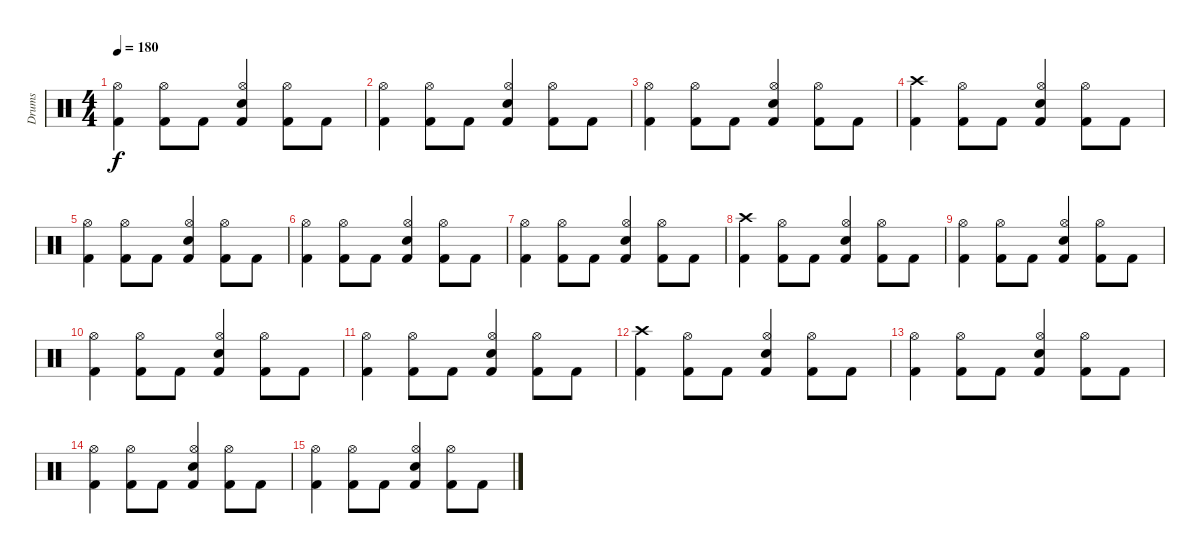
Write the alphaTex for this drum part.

\track ("Drums" "Drums") {instrument percussion}
\staff {score}
\articulation defaults
\ts (4 4)
\tempo 180
\clef neutral
\ks c
("Kick (hit) 2" "Hi-Hat (open)").4{dy f} ("Kick (hit) 2" "Hi-Hat (open)").8 "Kick (hit) 2".8 ("Kick (hit) 2" "Snare (hit) 2" "Hi-Hat (open)").4 ("Kick (hit) 2" "Hi-Hat (open)").8 "Kick (hit) 2".8 |
("Kick (hit) 2" "Hi-Hat (open)").4 ("Kick (hit) 2" "Hi-Hat (open)").8 "Kick (hit) 2".8 ("Kick (hit) 2" "Snare (hit) 2" "Hi-Hat (open)").4 ("Kick (hit) 2" "Hi-Hat (open)").8 "Kick (hit) 2".8 |
("Kick (hit) 2" "Hi-Hat (open)").4 ("Kick (hit) 2" "Hi-Hat (open)").8 "Kick (hit) 2".8 ("Kick (hit) 2" "Snare (hit) 2" "Hi-Hat (open)").4 ("Kick (hit) 2" "Hi-Hat (open)").8 "Kick (hit) 2".8 |
("Kick (hit) 2" "Crash high (hit)").4 ("Kick (hit) 2" "Hi-Hat (open)").8 "Kick (hit) 2".8 ("Kick (hit) 2" "Snare (hit) 2" "Hi-Hat (open)").4 ("Kick (hit) 2" "Hi-Hat (open)").8 "Kick (hit) 2".8 |
("Kick (hit) 2" "Hi-Hat (open)").4 ("Kick (hit) 2" "Hi-Hat (open)").8 "Kick (hit) 2".8 ("Kick (hit) 2" "Snare (hit) 2" "Hi-Hat (open)").4 ("Kick (hit) 2" "Hi-Hat (open)").8 "Kick (hit) 2".8 |
("Kick (hit) 2" "Hi-Hat (open)").4 ("Kick (hit) 2" "Hi-Hat (open)").8 "Kick (hit) 2".8 ("Kick (hit) 2" "Snare (hit) 2" "Hi-Hat (open)").4 ("Kick (hit) 2" "Hi-Hat (open)").8 "Kick (hit) 2".8 |
("Kick (hit) 2" "Hi-Hat (open)").4 ("Kick (hit) 2" "Hi-Hat (open)").8 "Kick (hit) 2".8 ("Kick (hit) 2" "Snare (hit) 2" "Hi-Hat (open)").4 ("Kick (hit) 2" "Hi-Hat (open)").8 "Kick (hit) 2".8 |
("Kick (hit) 2" "Crash high (hit)").4 ("Kick (hit) 2" "Hi-Hat (open)").8 "Kick (hit) 2".8 ("Kick (hit) 2" "Snare (hit) 2" "Hi-Hat (open)").4 ("Kick (hit) 2" "Hi-Hat (open)").8 "Kick (hit) 2".8 |
("Kick (hit) 2" "Hi-Hat (open)").4 ("Kick (hit) 2" "Hi-Hat (open)").8 "Kick (hit) 2".8 ("Kick (hit) 2" "Snare (hit) 2" "Hi-Hat (open)").4 ("Kick (hit) 2" "Hi-Hat (open)").8 "Kick (hit) 2".8 |
("Kick (hit) 2" "Hi-Hat (open)").4 ("Kick (hit) 2" "Hi-Hat (open)").8 "Kick (hit) 2".8 ("Kick (hit) 2" "Snare (hit) 2" "Hi-Hat (open)").4 ("Kick (hit) 2" "Hi-Hat (open)").8 "Kick (hit) 2".8 |
("Kick (hit) 2" "Hi-Hat (open)").4 ("Kick (hit) 2" "Hi-Hat (open)").8 "Kick (hit) 2".8 ("Kick (hit) 2" "Snare (hit) 2" "Hi-Hat (open)").4 ("Kick (hit) 2" "Hi-Hat (open)").8 "Kick (hit) 2".8 |
("Kick (hit) 2" "Crash high (hit)").4{volume 9} ("Kick (hit) 2" "Hi-Hat (open)").8 "Kick (hit) 2".8 ("Kick (hit) 2" "Snare (hit) 2" "Hi-Hat (open)").4 ("Kick (hit) 2" "Hi-Hat (open)").8 "Kick (hit) 2".8 |
("Kick (hit) 2" "Hi-Hat (open)").4 ("Kick (hit) 2" "Hi-Hat (open)").8 "Kick (hit) 2".8 ("Kick (hit) 2" "Snare (hit) 2" "Hi-Hat (open)").4 ("Kick (hit) 2" "Hi-Hat (open)").8 "Kick (hit) 2".8 |
("Kick (hit) 2" "Hi-Hat (open)").4{volume 5} ("Kick (hit) 2" "Hi-Hat (open)").8 "Kick (hit) 2".8 ("Kick (hit) 2" "Snare (hit) 2" "Hi-Hat (open)").4 ("Kick (hit) 2" "Hi-Hat (open)").8 "Kick (hit) 2".8 |
("Kick (hit) 2" "Hi-Hat (open)").4{volume 0} ("Kick (hit) 2" "Hi-Hat (open)").8 "Kick (hit) 2".8 ("Kick (hit) 2" "Snare (hit) 2" "Hi-Hat (open)").4 ("Kick (hit) 2" "Hi-Hat (open)").8 "Kick (hit) 2".8
